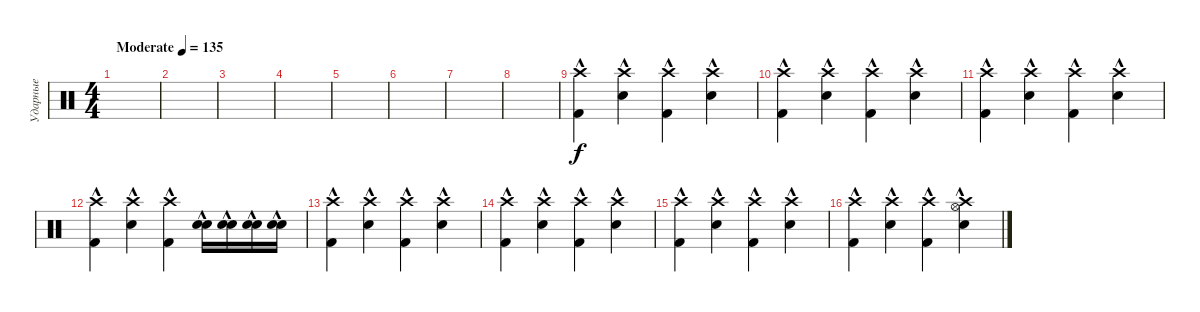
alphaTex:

\track ("Ударные" "Ударные") {instrument percussion}
\staff
\articulation defaults
\ts (4 4)
\tempo (135 "Moderate")
\clef neutral
\ks c
|
|
|
|
|
|
|
|
("Crash high (hit)"{hac} "Kick (hit) 2"{hac}).4 ("Crash high (hit)"{hac} "Electric Snare (hit)"{hac}).4 ("Crash high (hit)"{hac} "Kick (hit) 2"{hac}).4 ("Crash high (hit)"{hac} "Electric Snare (hit)"{hac}).4 |
("Crash high (hit)"{hac} "Kick (hit) 2"{hac}).4 ("Crash high (hit)"{hac} "Electric Snare (hit)"{hac}).4 ("Crash high (hit)"{hac} "Kick (hit) 2"{hac}).4 ("Crash high (hit)"{hac} "Electric Snare (hit)"{hac}).4 |
("Crash high (hit)"{hac} "Kick (hit) 2"{hac}).4 ("Crash high (hit)"{hac} "Electric Snare (hit)"{hac}).4 ("Crash high (hit)"{hac} "Kick (hit) 2"{hac}).4 ("Crash high (hit)"{hac} "Electric Snare (hit)"{hac}).4 |
("Crash high (hit)"{hac} "Kick (hit) 2"{hac}).4 ("Crash high (hit)"{hac} "Electric Snare (hit)"{hac}).4 ("Crash high (hit)"{hac} "Kick (hit) 2"{hac}).4 ("Snare (hit) 2"{hac} "Electric Snare (hit)"{hac}).16 ("Snare (hit) 2"{hac} "Electric Snare (hit)"{hac}).16 ("Snare (hit) 2"{hac} "Electric Snare (hit)"{hac}).16 ("Snare (hit) 2"{hac} "Electric Snare (hit)"{hac}).16 |
("Crash high (hit)"{hac} "Kick (hit) 2"{hac}).4 ("Crash high (hit)"{hac} "Electric Snare (hit)"{hac}).4 ("Crash high (hit)"{hac} "Kick (hit) 2"{hac}).4 ("Crash high (hit)"{hac} "Electric Snare (hit)"{hac}).4 |
("Crash high (hit)"{hac} "Kick (hit) 2"{hac}).4 ("Crash high (hit)"{hac} "Electric Snare (hit)"{hac}).4 ("Crash high (hit)"{hac} "Kick (hit) 2"{hac}).4 ("Crash high (hit)"{hac} "Electric Snare (hit)"{hac}).4 |
("Crash high (hit)"{hac} "Kick (hit) 2"{hac}).4 ("Crash high (hit)"{hac} "Electric Snare (hit)"{hac}).4 ("Crash high (hit)"{hac} "Kick (hit) 2"{hac}).4 ("Crash high (hit)"{hac} "Electric Snare (hit)"{hac}).4 |
("Crash high (hit)"{hac} "Kick (hit) 2"{hac}).4 ("Crash high (hit)"{hac} "Electric Snare (hit)"{hac}).4 ("Crash high (hit)"{hac} "Kick (hit) 2"{hac}).4 ("Hi-Hat (open)"{hac} "Electric Snare (hit)"{hac} "Crash high (hit)"{hac}).4
